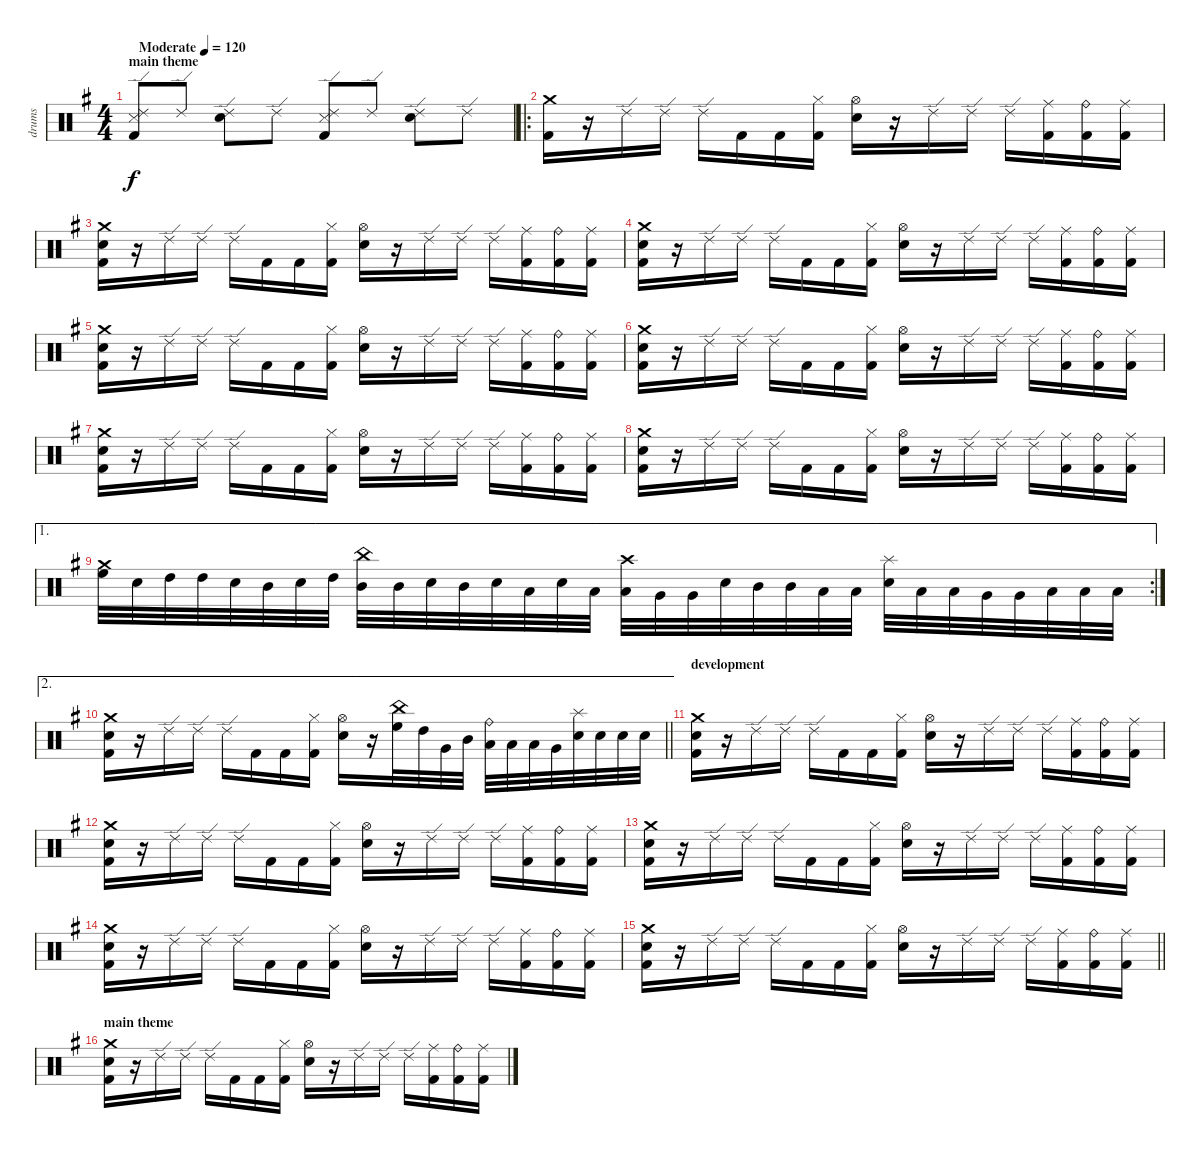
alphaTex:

\track ("drums" "drums") {instrument percussion}
\staff {score}
\articulation defaults
\ts (4 4)
\section ("" "main theme")
\tempo (120 "Moderate")
\tempo 60
\tempo (120 "Moderate")
\clef neutral
\ks g
("Snare (side stick) 3" "Ride (edge) 2" "Kick (hit) 2").8{dy f} "Ride (edge) 2".8 ("Ride (edge) 2" "Electric Snare (hit)").8 "Ride (edge) 2".8 ("Snare (side stick) 3" "Ride (edge) 2" "Kick (hit) 2").8 "Ride (edge) 2".8 ("Ride (edge) 2" "Electric Snare (hit)").8 "Ride (edge) 2".8 |
\ro
("Crash medium (hit)" "Kick (hit) 2").16 r.16 "Ride (edge) 2".16 "Ride (edge) 2".16 "Ride (edge) 2".16 "Kick (hit) 2".16 "Kick (hit) 2".16 ("Hi-Hat (closed)" "Kick (hit) 2").16 ("Hi-Hat (open)" "Electric Snare (hit)").16 r.16 "Ride (edge) 2".16 "Ride (edge) 2".16 "Ride (edge) 2".16 ("Ride (middle)" "Kick (hit) 2").16 ("Ride (bell)" "Kick (hit) 2").16 ("Ride (middle)" "Kick (hit) 2").16 |
("Crash medium (hit)" "Electric Snare (hit)" "Kick (hit) 2").16 r.16 "Ride (edge) 2".16 "Ride (edge) 2".16 "Ride (edge) 2".16 "Kick (hit) 2".16 "Kick (hit) 2".16 ("Hi-Hat (closed)" "Kick (hit) 2").16 ("Hi-Hat (open)" "Electric Snare (hit)").16 r.16 "Ride (edge) 2".16 "Ride (edge) 2".16 "Ride (edge) 2".16 ("Ride (middle)" "Kick (hit) 2").16 ("Ride (bell)" "Kick (hit) 2").16 ("Ride (middle)" "Kick (hit) 2").16 |
("Crash medium (hit)" "Electric Snare (hit)" "Kick (hit) 2").16 r.16 "Ride (edge) 2".16 "Ride (edge) 2".16 "Ride (edge) 2".16 "Kick (hit) 2".16 "Kick (hit) 2".16 ("Hi-Hat (closed)" "Kick (hit) 2").16 ("Hi-Hat (open)" "Electric Snare (hit)").16 r.16 "Ride (edge) 2".16 "Ride (edge) 2".16 "Ride (edge) 2".16 ("Ride (middle)" "Kick (hit) 2").16 ("Ride (bell)" "Kick (hit) 2").16 ("Ride (middle)" "Kick (hit) 2").16 |
("Crash medium (hit)" "Electric Snare (hit)" "Kick (hit) 2").16 r.16 "Ride (edge) 2".16 "Ride (edge) 2".16 "Ride (edge) 2".16 "Kick (hit) 2".16 "Kick (hit) 2".16 ("Hi-Hat (closed)" "Kick (hit) 2").16 ("Hi-Hat (open)" "Electric Snare (hit)").16 r.16 "Ride (edge) 2".16 "Ride (edge) 2".16 "Ride (edge) 2".16 ("Ride (middle)" "Kick (hit) 2").16 ("Ride (bell)" "Kick (hit) 2").16 ("Ride (middle)" "Kick (hit) 2").16 |
("Crash medium (hit)" "Electric Snare (hit)" "Kick (hit) 2").16 r.16 "Ride (edge) 2".16 "Ride (edge) 2".16 "Ride (edge) 2".16 "Kick (hit) 2".16 "Kick (hit) 2".16 ("Hi-Hat (closed)" "Kick (hit) 2").16 ("Hi-Hat (open)" "Electric Snare (hit)").16 r.16 "Ride (edge) 2".16 "Ride (edge) 2".16 "Ride (edge) 2".16 ("Ride (middle)" "Kick (hit) 2").16 ("Ride (bell)" "Kick (hit) 2").16 ("Ride (middle)" "Kick (hit) 2").16 |
("Crash medium (hit)" "Electric Snare (hit)" "Kick (hit) 2").16 r.16 "Ride (edge) 2".16 "Ride (edge) 2".16 "Ride (edge) 2".16 "Kick (hit) 2".16 "Kick (hit) 2".16 ("Hi-Hat (closed)" "Kick (hit) 2").16 ("Hi-Hat (open)" "Electric Snare (hit)").16 r.16 "Ride (edge) 2".16 "Ride (edge) 2".16 "Ride (edge) 2".16 ("Ride (middle)" "Kick (hit) 2").16 ("Ride (bell)" "Kick (hit) 2").16 ("Ride (middle)" "Kick (hit) 2").16 |
("Crash medium (hit)" "Electric Snare (hit)" "Kick (hit) 2").16 r.16 "Ride (edge) 2".16 "Ride (edge) 2".16 "Ride (edge) 2".16 "Kick (hit) 2".16 "Kick (hit) 2".16 ("Hi-Hat (closed)" "Kick (hit) 2").16 ("Hi-Hat (open)" "Electric Snare (hit)").16 r.16 "Ride (edge) 2".16 "Ride (edge) 2".16 "Ride (edge) 2".16 ("Ride (middle)" "Kick (hit) 2").16 ("Ride (bell)" "Kick (hit) 2").16 ("Ride (middle)" "Kick (hit) 2").16 |
\ae 1
\rc 2
("Crash medium (hit)" "High Floor Tom (hit)").32 "Electric Snare (hit)".32 "High Tom (hit)".32 "High Tom (hit)".32 "Electric Snare (hit)".32 "Mid Tom (hit)".32 "Electric Snare (hit)".32 "High Tom (hit)".32 ("China (hit)" "Mid Tom (hit)").32 "Mid Tom (hit)".32 "Electric Snare (hit)".32 "Mid Tom (hit)".32 "Electric Snare (hit)".32 "Low Tom (hit)".32 "Electric Snare (hit)".32 "Low Tom (hit)".32 ("Crash high (hit)" "Low Tom (hit)").32 "Very Low Tom (hit)".32 "Very Low Tom (hit)".32 "Electric Snare (hit)".32 "Mid Tom (hit)".32 "Mid Tom (hit)".32 "Low Tom (hit)".32 "Low Tom (hit)".32 ("Splash (hit)" "Electric Snare (hit)").32 "Low Tom (hit)".32 "Low Tom (hit)".32 "Very Low Tom (hit)".32 "Very Low Tom (hit)".32 "Low Floor Tom (hit)".32 "Low Floor Tom (hit)".32 "Low Floor Tom (hit)".32 |
\ae 2
\barLineRight lightlight
("Crash medium (hit)" "Electric Snare (hit)" "Kick (hit) 2").16 r.16 "Ride (edge) 2".16 "Ride (edge) 2".16 "Ride (edge) 2".16 "Kick (hit) 2".16 "Kick (hit) 2".16 ("Hi-Hat (closed)" "Kick (hit) 2").16 ("Hi-Hat (open)" "Electric Snare (hit)").16 r.16 ("China (hit)" "High Floor Tom (hit)").32 "High Tom (hit)".32 "Very Low Tom (hit)".32 "Mid Tom (hit)".32 ("Ride (bell)" "Low Tom (hit)").32 "Low Floor Tom (hit)".32 "Low Tom (hit)".32 "Very Low Tom (hit)".32 ("Splash (hit)" "Electric Snare (hit)").32 "Electric Snare (hit)".32 "Electric Snare (hit)".32 "Electric Snare (hit)".32 |
\section ("" "development")
("Crash medium (hit)" "Electric Snare (hit)" "Kick (hit) 2").16 r.16 "Ride (edge) 2".16 "Ride (edge) 2".16 "Ride (edge) 2".16 "Kick (hit) 2".16 "Kick (hit) 2".16 ("Hi-Hat (closed)" "Kick (hit) 2").16 ("Hi-Hat (open)" "Electric Snare (hit)").16 r.16 "Ride (edge) 2".16 "Ride (edge) 2".16 "Ride (edge) 2".16 ("Ride (middle)" "Kick (hit) 2").16 ("Ride (bell)" "Kick (hit) 2").16 ("Ride (middle)" "Kick (hit) 2").16 |
("Crash medium (hit)" "Electric Snare (hit)" "Kick (hit) 2").16 r.16 "Ride (edge) 2".16 "Ride (edge) 2".16 "Ride (edge) 2".16 "Kick (hit) 2".16 "Kick (hit) 2".16 ("Hi-Hat (closed)" "Kick (hit) 2").16 ("Hi-Hat (open)" "Electric Snare (hit)").16 r.16 "Ride (edge) 2".16 "Ride (edge) 2".16 "Ride (edge) 2".16 ("Ride (middle)" "Kick (hit) 2").16 ("Ride (bell)" "Kick (hit) 2").16 ("Ride (middle)" "Kick (hit) 2").16 |
("Crash medium (hit)" "Electric Snare (hit)" "Kick (hit) 2").16 r.16 "Ride (edge) 2".16 "Ride (edge) 2".16 "Ride (edge) 2".16 "Kick (hit) 2".16 "Kick (hit) 2".16 ("Hi-Hat (closed)" "Kick (hit) 2").16 ("Hi-Hat (open)" "Electric Snare (hit)").16 r.16 "Ride (edge) 2".16 "Ride (edge) 2".16 "Ride (edge) 2".16 ("Ride (middle)" "Kick (hit) 2").16 ("Ride (bell)" "Kick (hit) 2").16 ("Ride (middle)" "Kick (hit) 2").16 |
("Crash medium (hit)" "Electric Snare (hit)" "Kick (hit) 2").16 r.16 "Ride (edge) 2".16 "Ride (edge) 2".16 "Ride (edge) 2".16 "Kick (hit) 2".16 "Kick (hit) 2".16 ("Hi-Hat (closed)" "Kick (hit) 2").16 ("Hi-Hat (open)" "Electric Snare (hit)").16 r.16 "Ride (edge) 2".16 "Ride (edge) 2".16 "Ride (edge) 2".16 ("Ride (middle)" "Kick (hit) 2").16 ("Ride (bell)" "Kick (hit) 2").16 ("Ride (middle)" "Kick (hit) 2").16 |
\barLineRight lightlight
("Crash medium (hit)" "Electric Snare (hit)" "Kick (hit) 2").16 r.16 "Ride (edge) 2".16 "Ride (edge) 2".16 "Ride (edge) 2".16 "Kick (hit) 2".16 "Kick (hit) 2".16 ("Hi-Hat (closed)" "Kick (hit) 2").16 ("Hi-Hat (open)" "Electric Snare (hit)").16 r.16 "Ride (edge) 2".16 "Ride (edge) 2".16 "Ride (edge) 2".16 ("Ride (middle)" "Kick (hit) 2").16 ("Ride (bell)" "Kick (hit) 2").16 ("Ride (middle)" "Kick (hit) 2").16 |
\section ("" "main theme")
("Crash medium (hit)" "Electric Snare (hit)" "Kick (hit) 2").16 r.16 "Ride (edge) 2".16 "Ride (edge) 2".16 "Ride (edge) 2".16 "Kick (hit) 2".16 "Kick (hit) 2".16 ("Hi-Hat (closed)" "Kick (hit) 2").16 ("Hi-Hat (open)" "Electric Snare (hit)").16 r.16 "Ride (edge) 2".16 "Ride (edge) 2".16 "Ride (edge) 2".16 ("Ride (middle)" "Kick (hit) 2").16 ("Ride (bell)" "Kick (hit) 2").16 ("Ride (middle)" "Kick (hit) 2").16
